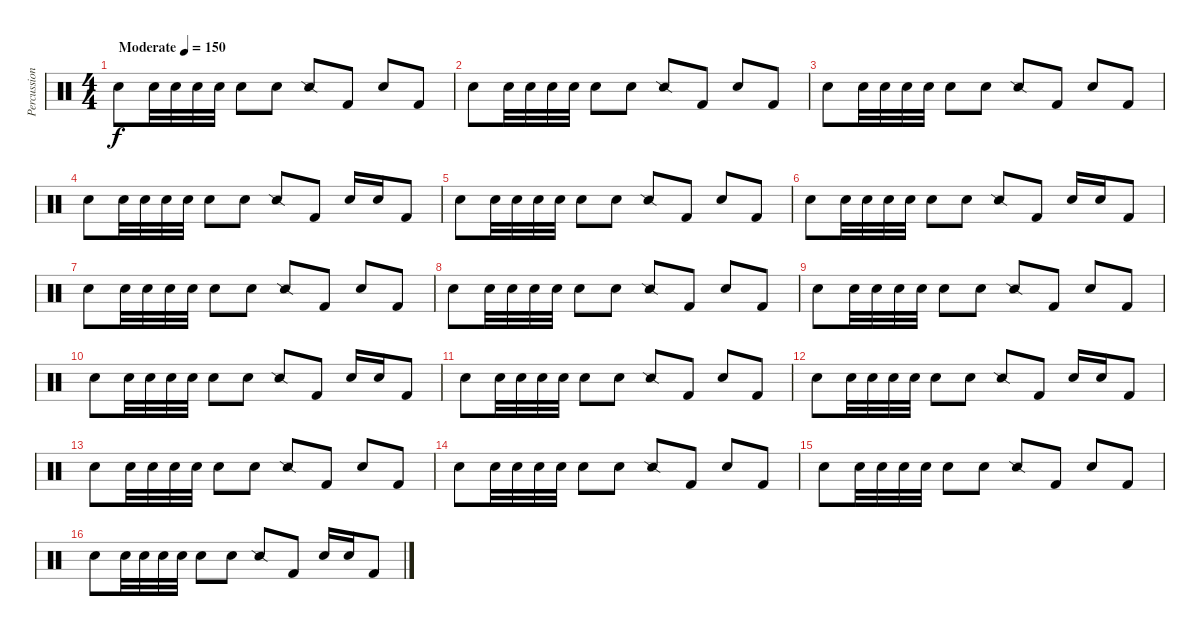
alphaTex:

\track ("Percussion" "Percussion") {instrument percussion}
\staff {score}
\articulation defaults
\ts (4 4)
\tempo (150 "Moderate")
\clef neutral
\ks c "Electric Snare (hit)".8{dy f} "Electric Snare (hit)".32 "Electric Snare (hit)".32 "Electric Snare (hit)".32 "Electric Snare (hit)".32 "Electric Snare (hit)".8 "Electric Snare (hit)".8 "Snare (side stick) 2".8 "Kick (hit) 2".8 "Electric Snare (hit)".8 "Kick (hit) 2".8
|
"Electric Snare (hit)".8 "Electric Snare (hit)".32 "Electric Snare (hit)".32 "Electric Snare (hit)".32 "Electric Snare (hit)".32 "Electric Snare (hit)".8 "Electric Snare (hit)".8 "Snare (side stick) 2".8 "Kick (hit) 2".8 "Electric Snare (hit)".8 "Kick (hit) 2".8 |
"Electric Snare (hit)".8 "Electric Snare (hit)".32 "Electric Snare (hit)".32 "Electric Snare (hit)".32 "Electric Snare (hit)".32 "Electric Snare (hit)".8 "Electric Snare (hit)".8 "Snare (side stick) 2".8 "Kick (hit) 2".8 "Electric Snare (hit)".8 "Kick (hit) 2".8 |
"Electric Snare (hit)".8 "Electric Snare (hit)".32 "Electric Snare (hit)".32 "Electric Snare (hit)".32 "Electric Snare (hit)".32 "Electric Snare (hit)".8 "Electric Snare (hit)".8 "Snare (side stick) 2".8 "Kick (hit) 2".8 "Electric Snare (hit)".16 "Electric Snare (hit)".16 "Kick (hit) 2".8 |
"Electric Snare (hit)".8 "Electric Snare (hit)".32 "Electric Snare (hit)".32 "Electric Snare (hit)".32 "Electric Snare (hit)".32 "Electric Snare (hit)".8 "Electric Snare (hit)".8 "Snare (side stick) 2".8 "Kick (hit) 2".8 "Electric Snare (hit)".8 "Kick (hit) 2".8 |
"Electric Snare (hit)".8 "Electric Snare (hit)".32 "Electric Snare (hit)".32 "Electric Snare (hit)".32 "Electric Snare (hit)".32 "Electric Snare (hit)".8 "Electric Snare (hit)".8 "Snare (side stick) 2".8 "Kick (hit) 2".8 "Electric Snare (hit)".16 "Electric Snare (hit)".16 "Kick (hit) 2".8 |
"Electric Snare (hit)".8 "Electric Snare (hit)".32 "Electric Snare (hit)".32 "Electric Snare (hit)".32 "Electric Snare (hit)".32 "Electric Snare (hit)".8 "Electric Snare (hit)".8 "Snare (side stick) 2".8 "Kick (hit) 2".8 "Electric Snare (hit)".8 "Kick (hit) 2".8 |
"Electric Snare (hit)".8 "Electric Snare (hit)".32 "Electric Snare (hit)".32 "Electric Snare (hit)".32 "Electric Snare (hit)".32 "Electric Snare (hit)".8 "Electric Snare (hit)".8 "Snare (side stick) 2".8 "Kick (hit) 2".8 "Electric Snare (hit)".8 "Kick (hit) 2".8 |
"Electric Snare (hit)".8 "Electric Snare (hit)".32 "Electric Snare (hit)".32 "Electric Snare (hit)".32 "Electric Snare (hit)".32 "Electric Snare (hit)".8 "Electric Snare (hit)".8 "Snare (side stick) 2".8 "Kick (hit) 2".8 "Electric Snare (hit)".8 "Kick (hit) 2".8 |
"Electric Snare (hit)".8 "Electric Snare (hit)".32 "Electric Snare (hit)".32 "Electric Snare (hit)".32 "Electric Snare (hit)".32 "Electric Snare (hit)".8 "Electric Snare (hit)".8 "Snare (side stick) 2".8 "Kick (hit) 2".8 "Electric Snare (hit)".16 "Electric Snare (hit)".16 "Kick (hit) 2".8 |
"Electric Snare (hit)".8 "Electric Snare (hit)".32 "Electric Snare (hit)".32 "Electric Snare (hit)".32 "Electric Snare (hit)".32 "Electric Snare (hit)".8 "Electric Snare (hit)".8 "Snare (side stick) 2".8 "Kick (hit) 2".8 "Electric Snare (hit)".8 "Kick (hit) 2".8 |
"Electric Snare (hit)".8 "Electric Snare (hit)".32 "Electric Snare (hit)".32 "Electric Snare (hit)".32 "Electric Snare (hit)".32 "Electric Snare (hit)".8 "Electric Snare (hit)".8 "Snare (side stick) 2".8 "Kick (hit) 2".8 "Electric Snare (hit)".16 "Electric Snare (hit)".16 "Kick (hit) 2".8 |
"Electric Snare (hit)".8 "Electric Snare (hit)".32 "Electric Snare (hit)".32 "Electric Snare (hit)".32 "Electric Snare (hit)".32 "Electric Snare (hit)".8 "Electric Snare (hit)".8 "Snare (side stick) 2".8 "Kick (hit) 2".8 "Electric Snare (hit)".8 "Kick (hit) 2".8 |
"Electric Snare (hit)".8 "Electric Snare (hit)".32 "Electric Snare (hit)".32 "Electric Snare (hit)".32 "Electric Snare (hit)".32 "Electric Snare (hit)".8 "Electric Snare (hit)".8 "Snare (side stick) 2".8 "Kick (hit) 2".8 "Electric Snare (hit)".8 "Kick (hit) 2".8 |
"Electric Snare (hit)".8 "Electric Snare (hit)".32 "Electric Snare (hit)".32 "Electric Snare (hit)".32 "Electric Snare (hit)".32 "Electric Snare (hit)".8 "Electric Snare (hit)".8 "Snare (side stick) 2".8 "Kick (hit) 2".8 "Electric Snare (hit)".8 "Kick (hit) 2".8 |
"Electric Snare (hit)".8 "Electric Snare (hit)".32 "Electric Snare (hit)".32 "Electric Snare (hit)".32 "Electric Snare (hit)".32 "Electric Snare (hit)".8 "Electric Snare (hit)".8 "Snare (side stick) 2".8 "Kick (hit) 2".8 "Electric Snare (hit)".16 "Electric Snare (hit)".16 "Kick (hit) 2".8
